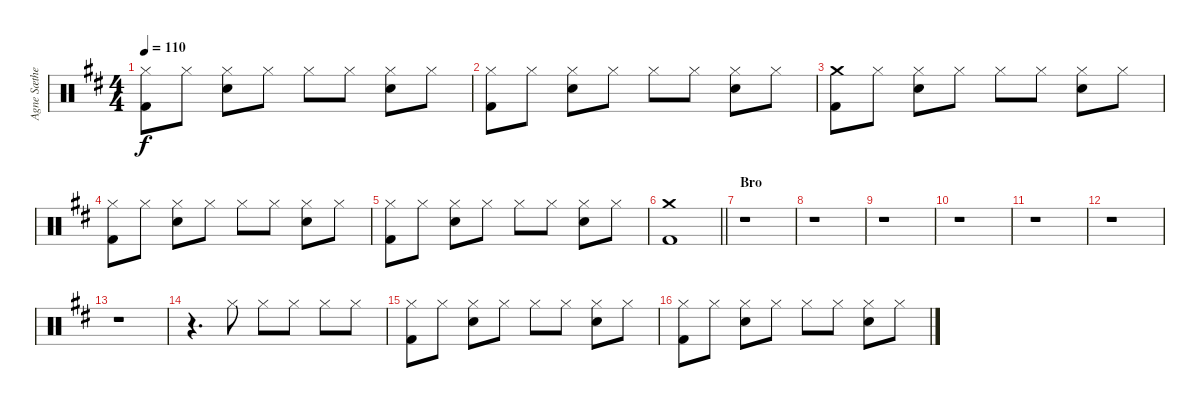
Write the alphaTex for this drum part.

\track ("Agne Sæther - Trommer" "Agne Sæthe") {instrument percussion}
\staff {score}
\articulation defaults
\ts (4 4)
\tempo 110
\clef neutral
\ks d
("Hi-Hat (closed)" "Kick (hit) 2").8{dy f} "Hi-Hat (closed)".8 ("Hi-Hat (closed)" "Electric Snare (hit)").8 "Hi-Hat (closed)".8 "Hi-Hat (closed)".8 "Hi-Hat (closed)".8 ("Hi-Hat (closed)" "Electric Snare (hit)").8 "Hi-Hat (closed)".8 |
("Hi-Hat (closed)" "Kick (hit) 2").8 "Hi-Hat (closed)".8 ("Hi-Hat (closed)" "Electric Snare (hit)").8 "Hi-Hat (closed)".8 "Hi-Hat (closed)".8 "Hi-Hat (closed)".8 ("Hi-Hat (closed)" "Electric Snare (hit)").8 "Hi-Hat (closed)".8 |
("Crash medium (hit)" "Kick (hit) 2").8 "Hi-Hat (closed)".8 ("Hi-Hat (closed)" "Electric Snare (hit)").8 "Hi-Hat (closed)".8 "Hi-Hat (closed)".8 "Hi-Hat (closed)".8 ("Hi-Hat (closed)" "Electric Snare (hit)").8 "Hi-Hat (closed)".8 |
("Hi-Hat (closed)" "Kick (hit) 2").8 "Hi-Hat (closed)".8 ("Hi-Hat (closed)" "Electric Snare (hit)").8 "Hi-Hat (closed)".8 "Hi-Hat (closed)".8 "Hi-Hat (closed)".8 ("Hi-Hat (closed)" "Electric Snare (hit)").8 "Hi-Hat (closed)".8 |
("Hi-Hat (closed)" "Kick (hit) 2").8 "Hi-Hat (closed)".8 ("Hi-Hat (closed)" "Electric Snare (hit)").8 "Hi-Hat (closed)".8 "Hi-Hat (closed)".8 "Hi-Hat (closed)".8 ("Hi-Hat (closed)" "Electric Snare (hit)").8 "Hi-Hat (closed)".8 |
\barLineRight lightlight
("Crash medium (hit)" "Kick (hit) 2").1 |
\section ("" "Bro")
r.1 |
r.1 |
r.1 |
r.1 |
r.1 |
r.1 |
r.1 |
r.4{d} "Hi-Hat (closed)".8 "Hi-Hat (closed)".8 "Hi-Hat (closed)".8 "Hi-Hat (closed)".8 "Hi-Hat (closed)".8 |
("Hi-Hat (closed)" "Kick (hit) 2").8 "Hi-Hat (closed)".8 ("Hi-Hat (closed)" "Electric Snare (hit)").8 "Hi-Hat (closed)".8 "Hi-Hat (closed)".8 "Hi-Hat (closed)".8 ("Hi-Hat (closed)" "Electric Snare (hit)").8 "Hi-Hat (closed)".8 |
("Hi-Hat (closed)" "Kick (hit) 2").8 "Hi-Hat (closed)".8 ("Hi-Hat (closed)" "Electric Snare (hit)").8 "Hi-Hat (closed)".8 "Hi-Hat (closed)".8 "Hi-Hat (closed)".8 ("Hi-Hat (closed)" "Electric Snare (hit)").8 "Hi-Hat (closed)".8
